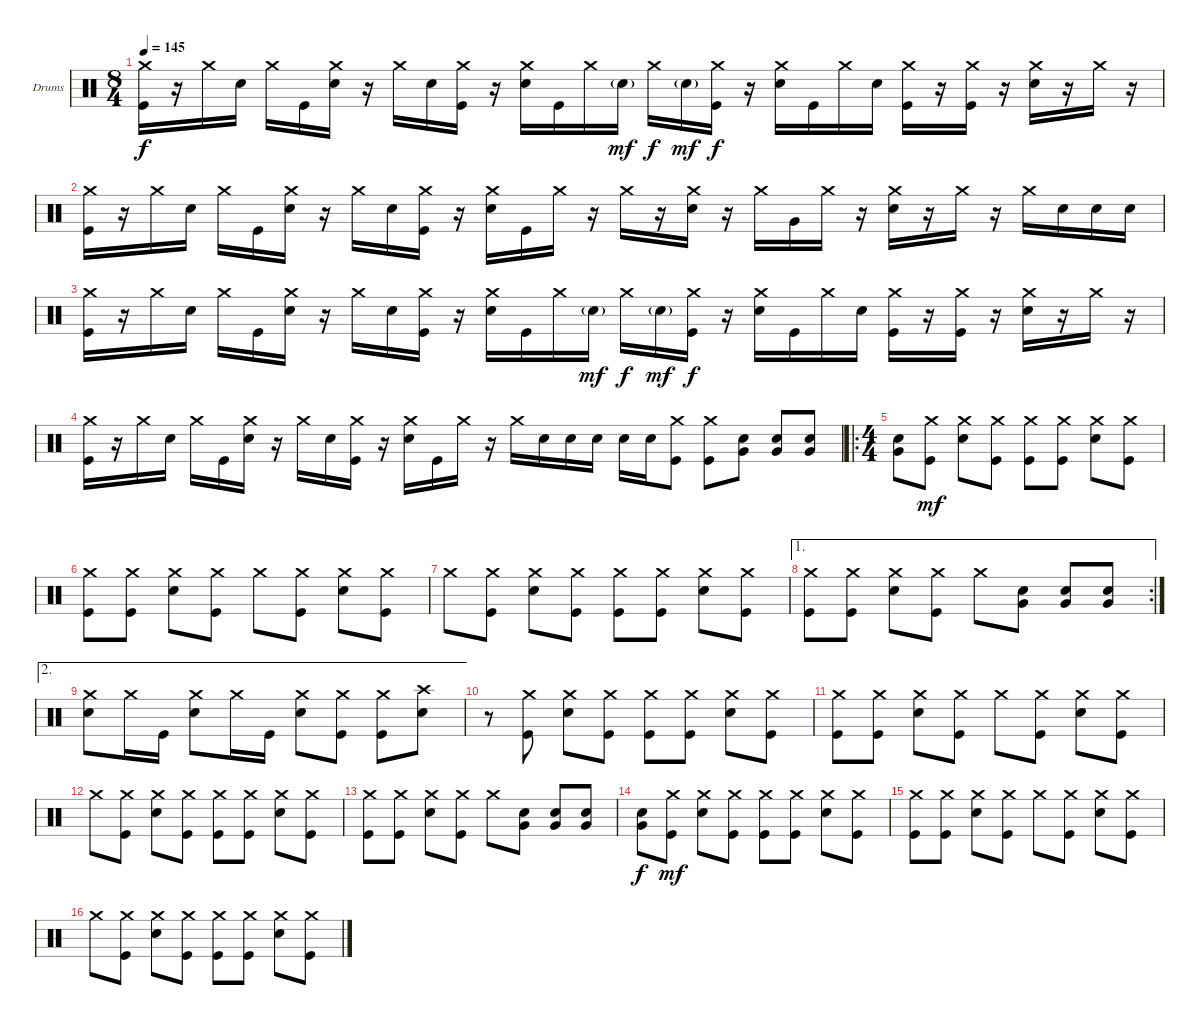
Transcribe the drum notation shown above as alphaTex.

\bracketExtendMode groupsimilarinstruments
\firstSystemTrackNameOrientation horizontal
\otherSystemsTrackNameOrientation horizontal
\track ("Drumkit" "Drums") {instrument percussion}
\staff {score}
\articulation defaults
\ts (8 4)
\tempo 145
\clef neutral
\ks c
("Crash medium (hit)" "Kick (hit)").16{dy f} r.16 "Crash medium (hit)".16 "Snare (hit) 2".16 "Crash medium (hit)".16 "Kick (hit)".16 ("Snare (hit) 2" "Crash medium (hit)").16 r.16 "Crash medium (hit)".16 "Snare (hit) 2".16 ("Kick (hit)" "Crash medium (hit)").16 r.16 ("Snare (hit) 2" "Crash medium (hit)").16 "Kick (hit)".16 "Crash medium (hit)".16 "Snare (hit) 2"{g}.16{dy mf} "Crash medium (hit)".16{dy f} "Snare (hit) 2"{g}.16{dy mf} ("Kick (hit)" "Crash medium (hit)").16{dy f} r.16 ("Snare (hit) 2" "Crash medium (hit)").16 "Kick (hit)".16 "Crash medium (hit)".16 "Snare (hit) 2".16 ("Kick (hit)" "Crash medium (hit)").16 r.16 ("Kick (hit)" "Crash medium (hit)").16 r.16 ("Snare (hit) 2" "Crash medium (hit)").16 r.16 "Crash medium (hit)".16 r.16 |
("Crash medium (hit)" "Kick (hit)").16 r.16 "Crash medium (hit)".16 "Snare (hit) 2".16 "Crash medium (hit)".16 "Kick (hit)".16 ("Snare (hit) 2" "Crash medium (hit)").16 r.16 "Crash medium (hit)".16 "Snare (hit) 2".16 ("Kick (hit)" "Crash medium (hit)").16 r.16 ("Snare (hit) 2" "Crash medium (hit)").16 "Kick (hit)".16 "Crash medium (hit)".16 r.16 "Crash medium (hit)".16 r.16 ("Snare (hit) 2" "Crash medium (hit)").16 r.16 "Crash medium (hit)".16 "Very Low Tom (hit)".16 "Crash medium (hit)".16 r.16 ("Snare (hit) 2" "Crash medium (hit)").16 r.16 "Crash medium (hit)".16 r.16 "Crash medium (hit)".16 "Snare (hit) 2".16 "Snare (hit) 2".16 "Snare (hit) 2".16 |
("Kick (hit)" "Crash medium (hit)").16 r.16 "Crash medium (hit)".16 "Snare (hit) 2".16 "Crash medium (hit)".16 "Kick (hit)".16 ("Snare (hit) 2" "Crash medium (hit)").16 r.16 "Crash medium (hit)".16 "Snare (hit) 2".16 ("Kick (hit)" "Crash medium (hit)").16 r.16 ("Snare (hit) 2" "Crash medium (hit)").16 "Kick (hit)".16 "Crash medium (hit)".16 "Snare (hit) 2"{g}.16{dy mf} "Crash medium (hit)".16{dy f} "Snare (hit) 2"{g}.16{dy mf} ("Kick (hit)" "Crash medium (hit)").16{dy f} r.16 ("Snare (hit) 2" "Crash medium (hit)").16 "Kick (hit)".16 "Crash medium (hit)".16 "Snare (hit) 2".16 ("Kick (hit)" "Crash medium (hit)").16 r.16 ("Kick (hit)" "Crash medium (hit)").16 r.16 ("Snare (hit) 2" "Crash medium (hit)").16 r.16 "Crash medium (hit)".16 r.16 |
("Crash medium (hit)" "Kick (hit)").16 r.16 "Crash medium (hit)".16 "Snare (hit) 2".16 "Crash medium (hit)".16 "Kick (hit)".16 ("Snare (hit) 2" "Crash medium (hit)").16 r.16 "Crash medium (hit)".16 "Snare (hit) 2".16 ("Kick (hit)" "Crash medium (hit)").16 r.16 ("Snare (hit) 2" "Crash medium (hit)").16 "Kick (hit)".16 "Crash medium (hit)".16 r.16 "Crash medium (hit)".16 "Snare (hit) 2".16 "Snare (hit) 2".16 "Snare (hit) 2".16 "Snare (hit) 2".16 "Snare (hit) 2".16 ("Crash medium (hit)" "Kick (hit)").8 ("Crash medium (hit)" "Kick (hit)").8 ("Snare (hit) 2" "Very Low Tom (hit)").8 ("Snare (hit) 2" "Very Low Tom (hit)").8 ("Snare (hit) 2" "Very Low Tom (hit)").8 |
\ro
\ts (4 4)
\beaming (8 2 2 2 2)
("Very Low Tom (hit)" "Snare (hit) 2").8 ("Crash medium (hit)" "Kick (hit)").8{dy mf} ("Crash medium (hit)" "Snare (hit) 2").8 ("Crash medium (hit)" "Kick (hit)").8 ("Crash medium (hit)" "Kick (hit)").8 ("Crash medium (hit)" "Kick (hit)").8 ("Crash medium (hit)" "Snare (hit) 2").8 ("Crash medium (hit)" "Kick (hit)").8 |
("Crash medium (hit)" "Kick (hit)").8 ("Crash medium (hit)" "Kick (hit)").8 ("Crash medium (hit)" "Snare (hit) 2").8 ("Crash medium (hit)" "Kick (hit)").8 "Crash medium (hit)".8 ("Crash medium (hit)" "Kick (hit)").8 ("Crash medium (hit)" "Snare (hit) 2").8 ("Crash medium (hit)" "Kick (hit)").8 |
"Crash medium (hit)".8 ("Crash medium (hit)" "Kick (hit)").8 ("Crash medium (hit)" "Snare (hit) 2").8 ("Crash medium (hit)" "Kick (hit)").8 ("Crash medium (hit)" "Kick (hit)").8 ("Crash medium (hit)" "Kick (hit)").8 ("Crash medium (hit)" "Snare (hit) 2").8 ("Crash medium (hit)" "Kick (hit)").8 |
\ae 1
\rc 2
("Crash medium (hit)" "Kick (hit)").8 ("Crash medium (hit)" "Kick (hit)").8 ("Crash medium (hit)" "Snare (hit) 2").8 ("Crash medium (hit)" "Kick (hit)").8 "Crash medium (hit)".8 ("Snare (hit) 2" "Very Low Tom (hit)").8 ("Snare (hit) 2" "Very Low Tom (hit)").8 ("Snare (hit) 2" "Very Low Tom (hit)").8 |
\ae 2
("Crash medium (hit)" "Snare (hit) 2").8 "Crash medium (hit)".16 "Kick (hit)".16 ("Crash medium (hit)" "Snare (hit) 2").8 "Crash medium (hit)".16 "Kick (hit)".16 ("Crash medium (hit)" "Snare (hit) 2").8 ("Crash medium (hit)" "Kick (hit)").8 ("Crash medium (hit)" "Kick (hit)").8 ("Crash high (hit)" "Snare (hit) 2").8 |
r.8 ("Crash medium (hit)" "Kick (hit)").8 ("Crash medium (hit)" "Snare (hit) 2").8 ("Crash medium (hit)" "Kick (hit)").8 ("Crash medium (hit)" "Kick (hit)").8 ("Crash medium (hit)" "Kick (hit)").8 ("Crash medium (hit)" "Snare (hit) 2").8 ("Crash medium (hit)" "Kick (hit)").8 |
("Crash medium (hit)" "Kick (hit)").8 ("Crash medium (hit)" "Kick (hit)").8 ("Crash medium (hit)" "Snare (hit) 2").8 ("Crash medium (hit)" "Kick (hit)").8 "Crash medium (hit)".8 ("Crash medium (hit)" "Kick (hit)").8 ("Crash medium (hit)" "Snare (hit) 2").8 ("Crash medium (hit)" "Kick (hit)").8 |
"Crash medium (hit)".8 ("Crash medium (hit)" "Kick (hit)").8 ("Crash medium (hit)" "Snare (hit) 2").8 ("Crash medium (hit)" "Kick (hit)").8 ("Crash medium (hit)" "Kick (hit)").8 ("Crash medium (hit)" "Kick (hit)").8 ("Crash medium (hit)" "Snare (hit) 2").8 ("Crash medium (hit)" "Kick (hit)").8 |
("Crash medium (hit)" "Kick (hit)").8 ("Crash medium (hit)" "Kick (hit)").8 ("Crash medium (hit)" "Snare (hit) 2").8 ("Crash medium (hit)" "Kick (hit)").8 "Crash medium (hit)".8 ("Snare (hit) 2" "Very Low Tom (hit)").8 ("Snare (hit) 2" "Very Low Tom (hit)").8 ("Snare (hit) 2" "Very Low Tom (hit)").8 |
("Very Low Tom (hit)" "Snare (hit) 2").8{dy f} ("Crash medium (hit)" "Kick (hit)").8{dy mf} ("Crash medium (hit)" "Snare (hit) 2").8 ("Crash medium (hit)" "Kick (hit)").8 ("Crash medium (hit)" "Kick (hit)").8 ("Crash medium (hit)" "Kick (hit)").8 ("Crash medium (hit)" "Snare (hit) 2").8 ("Crash medium (hit)" "Kick (hit)").8 |
("Crash medium (hit)" "Kick (hit)").8 ("Crash medium (hit)" "Kick (hit)").8 ("Crash medium (hit)" "Snare (hit) 2").8 ("Crash medium (hit)" "Kick (hit)").8 "Crash medium (hit)".8 ("Crash medium (hit)" "Kick (hit)").8 ("Crash medium (hit)" "Snare (hit) 2").8 ("Crash medium (hit)" "Kick (hit)").8 |
"Crash medium (hit)".8 ("Crash medium (hit)" "Kick (hit)").8 ("Crash medium (hit)" "Snare (hit) 2").8 ("Crash medium (hit)" "Kick (hit)").8 ("Crash medium (hit)" "Kick (hit)").8 ("Crash medium (hit)" "Kick (hit)").8 ("Crash medium (hit)" "Snare (hit) 2").8 ("Crash medium (hit)" "Kick (hit)").8
